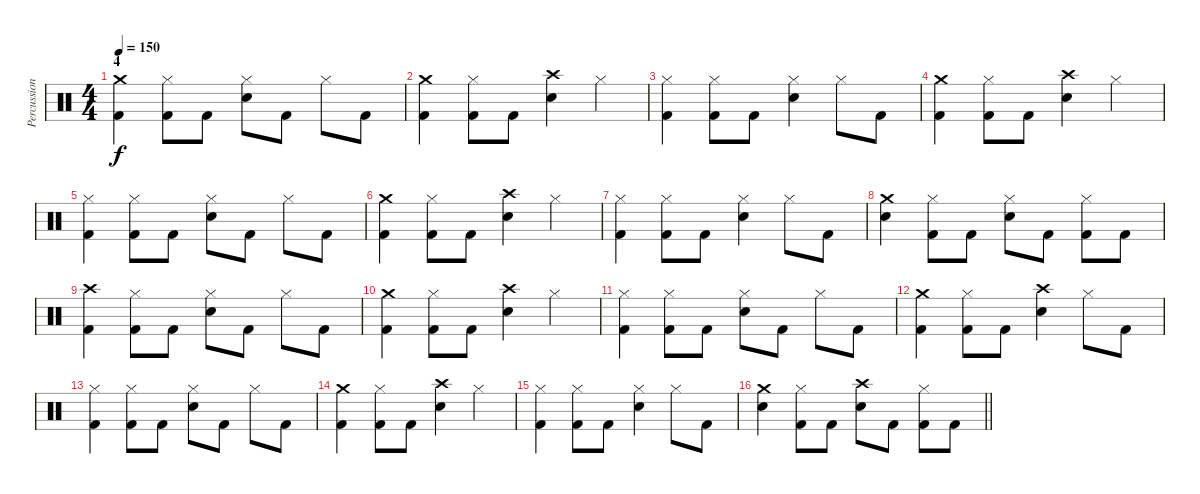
\track ("Percussion" "Percussion") {instrument percussion}
\staff {score}
\articulation defaults
\ts (4 4)
\section ("" "4")
\tempo 150
\clef neutral
\ks c
("Crash medium (hit)" "Kick (hit) 2").4{dy f} ("Hi-Hat (closed)" "Kick (hit) 2").8 "Kick (hit) 2".8 ("Hi-Hat (closed)" "Snare (hit) 2").8 "Kick (hit) 2".8 "Hi-Hat (closed)".8 "Kick (hit) 2".8 |
("Crash medium (hit)" "Kick (hit) 2").4 ("Hi-Hat (closed)" "Kick (hit) 2").8 "Kick (hit) 2".8 ("Crash high (hit)" "Snare (hit) 2").4 "Hi-Hat (closed)".4 |
("Hi-Hat (closed)" "Kick (hit) 2").4 ("Hi-Hat (closed)" "Kick (hit) 2").8 "Kick (hit) 2".8 ("Hi-Hat (closed)" "Snare (hit) 2").4 "Hi-Hat (closed)".8 "Kick (hit) 2".8 |
("Crash medium (hit)" "Kick (hit) 2").4 ("Hi-Hat (closed)" "Kick (hit) 2").8 "Kick (hit) 2".8 ("Crash high (hit)" "Snare (hit) 2").4 "Hi-Hat (closed)".4 |
("Hi-Hat (closed)" "Kick (hit) 2").4 ("Hi-Hat (closed)" "Kick (hit) 2").8 "Kick (hit) 2".8 ("Hi-Hat (closed)" "Snare (hit) 2").8 "Kick (hit) 2".8 "Hi-Hat (closed)".8 "Kick (hit) 2".8 |
("Crash medium (hit)" "Kick (hit) 2").4 ("Hi-Hat (closed)" "Kick (hit) 2").8 "Kick (hit) 2".8 ("Crash high (hit)" "Snare (hit) 2").4 "Hi-Hat (closed)".4 |
("Hi-Hat (closed)" "Kick (hit) 2").4 ("Hi-Hat (closed)" "Kick (hit) 2").8 "Kick (hit) 2".8 ("Hi-Hat (closed)" "Snare (hit) 2").4 "Hi-Hat (closed)".8 "Kick (hit) 2".8 |
("Crash medium (hit)" "Snare (hit) 2").4 ("Hi-Hat (closed)" "Kick (hit) 2").8 "Kick (hit) 2".8 ("Hi-Hat (closed)" "Snare (hit) 2").8 "Kick (hit) 2".8 ("Hi-Hat (closed)" "Kick (hit) 2").8 "Kick (hit) 2".8 |
("Crash high (hit)" "Kick (hit) 2").4 ("Hi-Hat (closed)" "Kick (hit) 2").8 "Kick (hit) 2".8 ("Hi-Hat (closed)" "Snare (hit) 2").8 "Kick (hit) 2".8 "Hi-Hat (closed)".8 "Kick (hit) 2".8 |
("Crash medium (hit)" "Kick (hit) 2").4 ("Hi-Hat (closed)" "Kick (hit) 2").8 "Kick (hit) 2".8 ("Crash high (hit)" "Snare (hit) 2").4 "Hi-Hat (closed)".4 |
("Hi-Hat (closed)" "Kick (hit) 2").4 ("Hi-Hat (closed)" "Kick (hit) 2").8 "Kick (hit) 2".8 ("Hi-Hat (closed)" "Snare (hit) 2").8 "Kick (hit) 2".8 "Hi-Hat (closed)".8 "Kick (hit) 2".8 |
("Crash medium (hit)" "Kick (hit) 2").4 ("Hi-Hat (closed)" "Kick (hit) 2").8 "Kick (hit) 2".8 ("Crash high (hit)" "Snare (hit) 2").4 "Hi-Hat (closed)".8 "Kick (hit) 2".8 |
("Hi-Hat (closed)" "Kick (hit) 2").4 ("Hi-Hat (closed)" "Kick (hit) 2").8 "Kick (hit) 2".8 ("Hi-Hat (closed)" "Snare (hit) 2").8 "Kick (hit) 2".8 "Hi-Hat (closed)".8 "Kick (hit) 2".8 |
("Crash medium (hit)" "Kick (hit) 2").4 ("Hi-Hat (closed)" "Kick (hit) 2").8 "Kick (hit) 2".8 ("Crash high (hit)" "Snare (hit) 2").4 "Hi-Hat (closed)".4 |
("Hi-Hat (closed)" "Kick (hit) 2").4 ("Hi-Hat (closed)" "Kick (hit) 2").8 "Kick (hit) 2".8 ("Hi-Hat (closed)" "Snare (hit) 2").4 "Hi-Hat (closed)".8 "Kick (hit) 2".8 |
\barLineRight lightlight
("Crash medium (hit)" "Snare (hit) 2").4 ("Hi-Hat (closed)" "Kick (hit) 2").8 "Kick (hit) 2".8 ("Crash high (hit)" "Snare (hit) 2").8 "Kick (hit) 2".8 ("Hi-Hat (closed)" "Kick (hit) 2").8 "Kick (hit) 2".8
